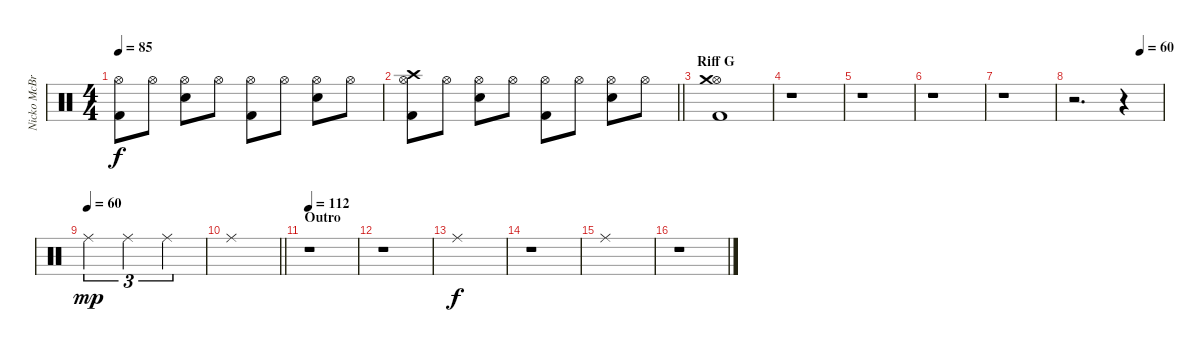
\track ("Nicko McBrain" "Nicko McBr") {instrument percussion}
\staff {score}
\articulation defaults
\ts (4 4)
\tempo 85
\clef neutral
\ks c
("Kick (hit) 2" "Hi-Hat (open)").8{dy f} "Hi-Hat (open)".8 ("Snare (hit) 2" "Hi-Hat (open)").8 "Hi-Hat (open)".8 ("Kick (hit) 2" "Hi-Hat (open)").8 "Hi-Hat (open)".8 ("Snare (hit) 2" "Hi-Hat (open)").8 "Hi-Hat (open)".8 |
\barLineRight lightlight
("Kick (hit) 2" "Hi-Hat (open)" "Crash high (hit)").8 "Hi-Hat (open)".8 ("Snare (hit) 2" "Hi-Hat (open)").8 "Hi-Hat (open)".8 ("Kick (hit) 2" "Hi-Hat (open)").8 "Hi-Hat (open)".8 ("Snare (hit) 2" "Hi-Hat (open)").8 "Hi-Hat (open)".8 |
\section ("" "Riff G")
("Kick (hit) 2" "Hi-Hat (open)" "Crash medium (hit)").1 |
r.1 |
r.1 |
r.1 |
r.1 |
\tempo (60 0.75)
r.2{d} r.4 |
\tempo (60)
"Ride (middle)".2{tu (3 2) dy mp} "Ride (middle)".2{tu (3 2)} "Ride (middle)".2{tu (3 2)} |
\barLineRight lightlight "Ride (middle)".1
|
\section ("" "Outro")
\tempo 112
r.1 |
r.1 |
"Ride (middle)".1{dy f} |
r.1 |
"Ride (middle)".1 |
r.1
